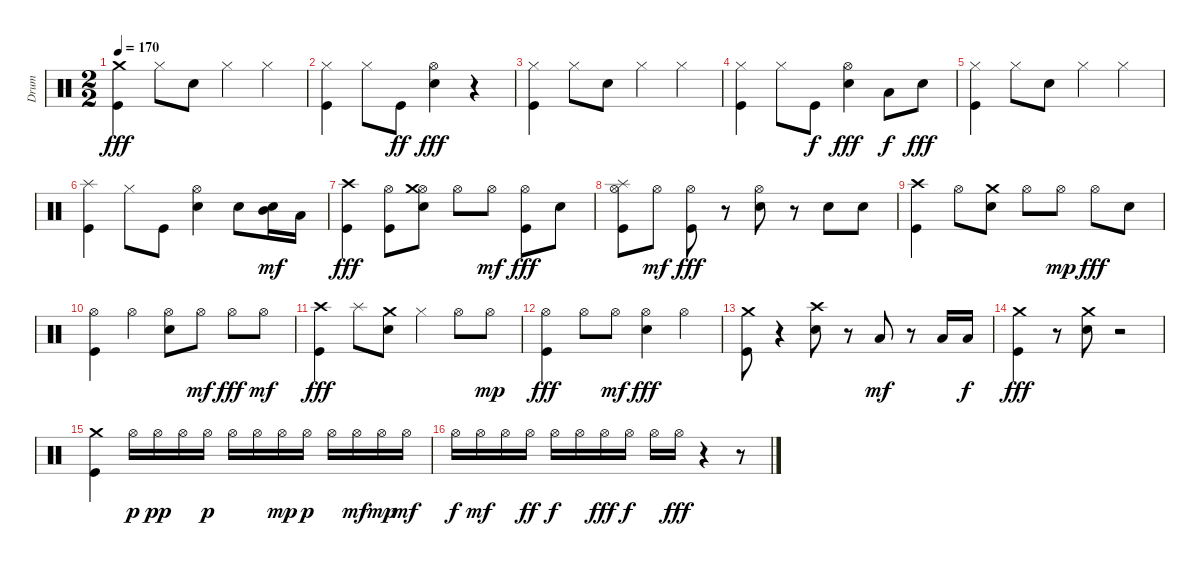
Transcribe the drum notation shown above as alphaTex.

\track ("Drum" "Drum") {instrument percussion}
\staff {score}
\articulation defaults
\ts (2 2)
\tempo 170
\clef neutral
\ks c
("Crash medium (hit)" "Kick (hit)").4{dy fff} "Hi-Hat (closed)".8 "Electric Snare (hit)".8 "Hi-Hat (closed)".4 "Hi-Hat (closed)".4 |
("Kick (hit)" "Hi-Hat (closed)").4 "Hi-Hat (closed)".8 "Kick (hit)".8{dy ff} ("Electric Snare (hit)" "Hi-Hat (open)").4{dy fff} r.4 |
("Hi-Hat (closed)" "Kick (hit)").4 "Hi-Hat (closed)".8 "Electric Snare (hit)".8 "Hi-Hat (closed)".4 "Hi-Hat (closed)".4 |
("Kick (hit)" "Hi-Hat (closed)").4 "Hi-Hat (closed)".8 "Kick (hit)".8{dy f} ("Electric Snare (hit)" "Hi-Hat (open)").4{dy fff} "Low Floor Tom (hit)".8{dy f} "Electric Snare (hit)".8{dy fff} |
("Hi-Hat (closed)" "Kick (hit)").4 "Hi-Hat (closed)".8 "Electric Snare (hit)".8 "Hi-Hat (closed)".4 "Hi-Hat (closed)".4 |
("Splash (hit)" "Kick (hit)").4 "Hi-Hat (closed)".8 "Kick (hit)".8 ("Electric Snare (hit)" "Hi-Hat (open)").4 "Electric Snare (hit)".8 ("Electric Snare (hit)" "Mid Tom (hit)").16{dy mf} "Low Tom (hit)".16 |
("Kick (hit)" "Crash high (hit)").4{dy fff} ("Hi-Hat (open)" "Kick (hit)").8 ("Hi-Hat (open)" "Electric Snare (hit)" "Crash medium (hit)").8 "Hi-Hat (open)".8 "Hi-Hat (open)".8{dy mf} ("Hi-Hat (open)" "Kick (hit)").8{dy fff} "Electric Snare (hit)".8 |
("Splash (hit)" "Hi-Hat (open)" "Kick (hit)").8 "Hi-Hat (open)".8{dy mf} ("Hi-Hat (open)" "Kick (hit)").8{dy fff} r.8 ("Hi-Hat (open)" "Electric Snare (hit)").8 r.8 "Electric Snare (hit)".8 "Electric Snare (hit)".8 |
("Crash high (hit)" "Kick (hit)").4 "Hi-Hat (open)".8 ("Crash medium (hit)" "Electric Snare (hit)").8 "Hi-Hat (open)".8 "Hi-Hat (open)".8{dy mp} "Hi-Hat (open)".8{dy fff} "Electric Snare (hit)".8 |
("Hi-Hat (open)" "Kick (hit)").4 "Hi-Hat (open)".4 ("Hi-Hat (open)" "Electric Snare (hit)").8 "Hi-Hat (open)".8{dy mf} "Hi-Hat (open)".8{dy fff} "Hi-Hat (open)".8{dy mf} |
("Crash high (hit)" "Kick (hit)").4{dy fff} "Splash (hit)".8 ("Crash medium (hit)" "Electric Snare (hit)").8 "Hi-Hat (closed)".4 "Hi-Hat (open)".8 "Hi-Hat (open)".8{dy mp} |
("Hi-Hat (open)" "Kick (hit)").4{dy fff} "Hi-Hat (open)".8 "Hi-Hat (open)".8{dy mf} ("Hi-Hat (open)" "Electric Snare (hit)").4{dy fff} "Hi-Hat (open)".4 |
("Crash medium (hit)" "Kick (hit)").8 r.4 ("Electric Snare (hit)" "Crash high (hit)").8 r.8 "Low Floor Tom (hit)".8{dy mf} r.8 "Low Tom (hit)".16 "Low Tom (hit)".16{dy f} |
("Crash medium (hit)" "Kick (hit)").4{dy fff} r.8 ("Crash medium (hit)" "Electric Snare (hit)").8 r.2 |
("Kick (hit)" "Crash medium (hit)").4 "Hi-Hat (open)".16{dy p} "Hi-Hat (open)".16{dy pp} "Hi-Hat (open)".16 "Hi-Hat (open)".16{dy p} "Hi-Hat (open)".16 "Hi-Hat (open)".16 "Hi-Hat (open)".16{dy mp} "Hi-Hat (open)".16{dy p} "Hi-Hat (open)".16 "Hi-Hat (open)".16{dy mf} "Hi-Hat (open)".16{dy mp} "Hi-Hat (open)".16{dy mf} |
"Hi-Hat (open)".16{dy f} "Hi-Hat (open)".16{dy mf} "Hi-Hat (open)".16 "Hi-Hat (open)".16{dy ff} "Hi-Hat (open)".16{dy f} "Hi-Hat (open)".16 "Hi-Hat (open)".16{dy fff} "Hi-Hat (open)".16{dy f} "Hi-Hat (open)".16 "Hi-Hat (open)".16{dy fff} r.4 r.8
